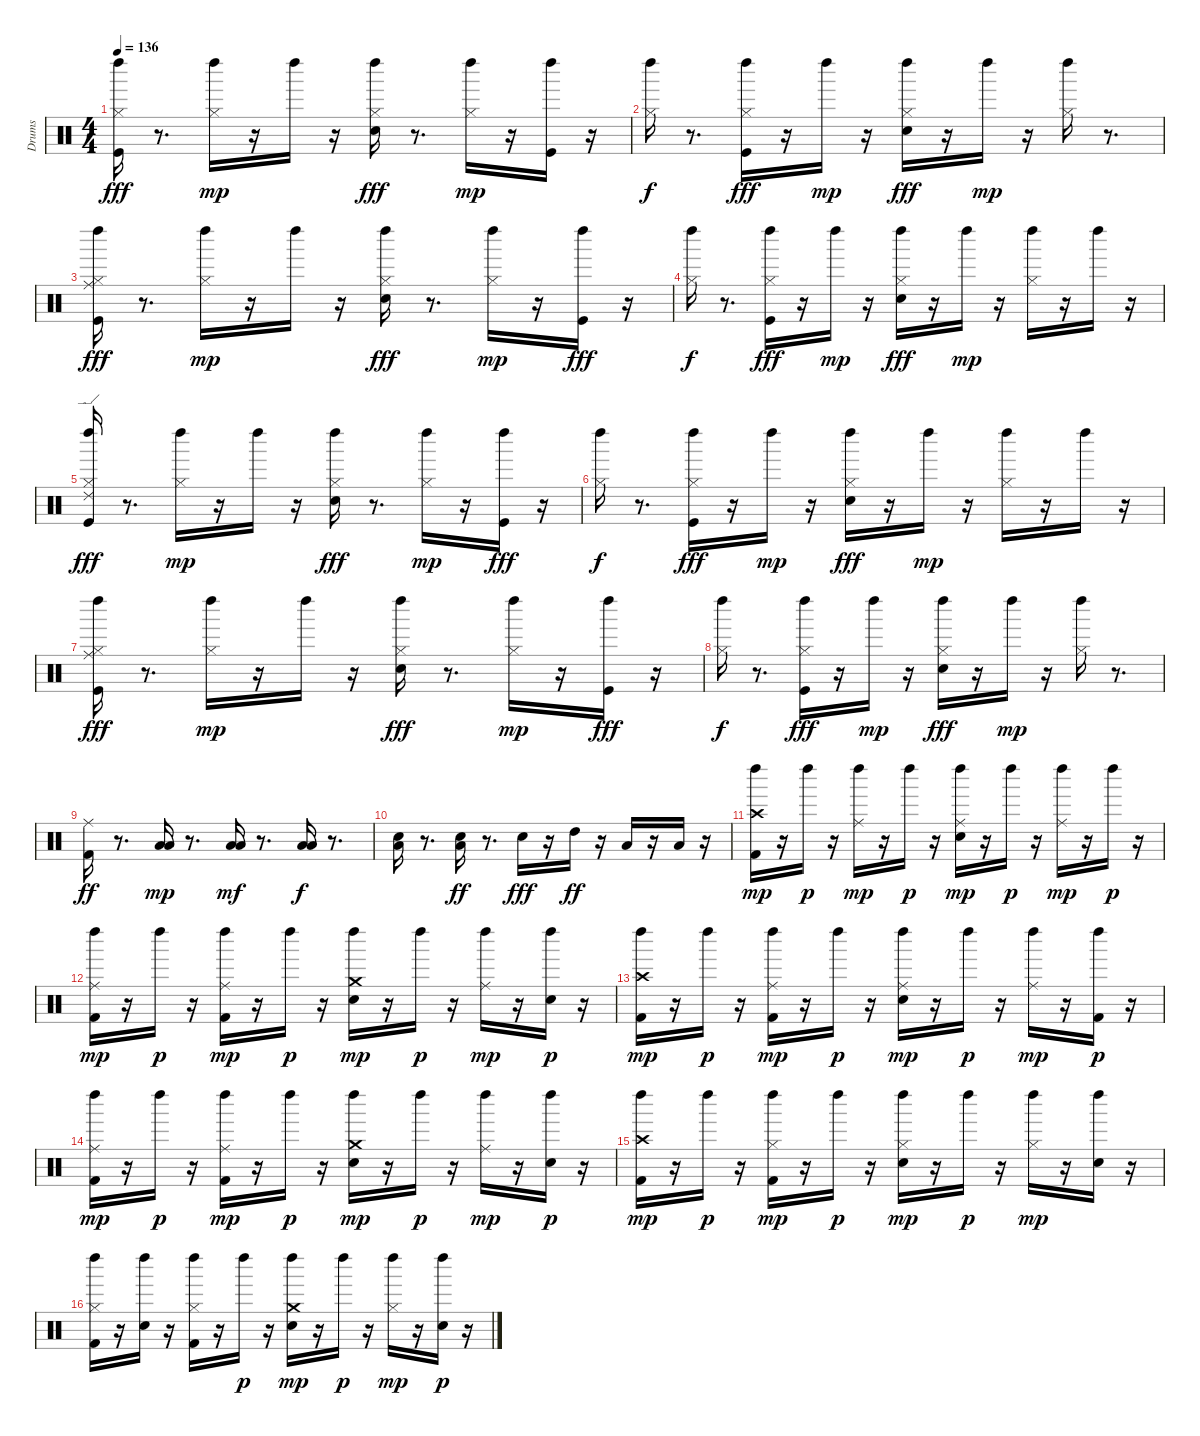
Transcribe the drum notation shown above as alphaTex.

\track ("Drums" "Drums") {instrument percussion}
\staff {score}
\articulation defaults
\ts (4 4)
\tempo 136
\clef neutral
\ks c
("Kick (hit)" "Hi-Hat (closed)" "Left Maraca (hit)").16{dy fff} r.8{d} ("Hi-Hat (closed)" "Left Maraca (hit)").16{dy mp} r.16 "Left Maraca (hit)".16 r.16 ("Snare (hit) 2" "Hi-Hat (closed)" "Left Maraca (hit)").16{dy fff} r.8{d} ("Hi-Hat (closed)" "Left Maraca (hit)").16{dy mp} r.16 ("Kick (hit)" "Left Maraca (hit)").16 r.16 |
("Hi-Hat (closed)" "Left Maraca (hit)").16{dy f} r.8{d} ("Hi-Hat (closed)" "Kick (hit)" "Left Maraca (hit)").16{dy fff} r.16 "Left Maraca (hit)".16{dy mp} r.16 ("Snare (hit) 2" "Hi-Hat (closed)" "Left Maraca (hit)").16{dy fff} r.16 "Left Maraca (hit)".16{dy mp} r.16 ("Hi-Hat (closed)" "Left Maraca (hit)").16 r.8{d} |
("Kick (hit)" "Hi-Hat (closed)" "Left Maraca (hit)" "Ride (middle)").16{dy fff} r.8{d} ("Hi-Hat (closed)" "Left Maraca (hit)").16{dy mp} r.16 "Left Maraca (hit)".16 r.16 ("Snare (hit) 2" "Hi-Hat (closed)" "Left Maraca (hit)").16{dy fff} r.8{d} ("Hi-Hat (closed)" "Left Maraca (hit)").16{dy mp} r.16 ("Left Maraca (hit)" "Kick (hit)").16{dy fff} r.16 |
("Hi-Hat (closed)" "Left Maraca (hit)").16{dy f} r.8{d} ("Hi-Hat (closed)" "Left Maraca (hit)" "Kick (hit)").16{dy fff} r.16 "Left Maraca (hit)".16{dy mp} r.16 ("Snare (hit) 2" "Hi-Hat (closed)" "Left Maraca (hit)").16{dy fff} r.16 "Left Maraca (hit)".16{dy mp} r.16 ("Hi-Hat (closed)" "Left Maraca (hit)").16 r.16 "Left Maraca (hit)".16 r.16 |
("Kick (hit)" "Hi-Hat (closed)" "Left Maraca (hit)" "Ride (edge) 2").16{dy fff} r.8{d} ("Hi-Hat (closed)" "Left Maraca (hit)").16{dy mp} r.16 "Left Maraca (hit)".16 r.16 ("Snare (hit) 2" "Hi-Hat (closed)" "Left Maraca (hit)").16{dy fff} r.8{d} ("Hi-Hat (closed)" "Left Maraca (hit)").16{dy mp} r.16 ("Left Maraca (hit)" "Kick (hit)").16{dy fff} r.16 |
("Hi-Hat (closed)" "Left Maraca (hit)").16{dy f} r.8{d} ("Hi-Hat (closed)" "Left Maraca (hit)" "Kick (hit)").16{dy fff} r.16 "Left Maraca (hit)".16{dy mp} r.16 ("Snare (hit) 2" "Hi-Hat (closed)" "Left Maraca (hit)").16{dy fff} r.16 "Left Maraca (hit)".16{dy mp} r.16 ("Hi-Hat (closed)" "Left Maraca (hit)").16 r.16 "Left Maraca (hit)".16 r.16 |
("Kick (hit)" "Hi-Hat (closed)" "Left Maraca (hit)" "Ride (middle)").16{dy fff} r.8{d} ("Hi-Hat (closed)" "Left Maraca (hit)").16{dy mp} r.16 "Left Maraca (hit)".16 r.16 ("Snare (hit) 2" "Hi-Hat (closed)" "Left Maraca (hit)").16{dy fff} r.8{d} ("Hi-Hat (closed)" "Left Maraca (hit)").16{dy mp} r.16 ("Left Maraca (hit)" "Kick (hit)").16{dy fff} r.16 |
("Hi-Hat (closed)" "Left Maraca (hit)").16{dy f} r.8{d} ("Hi-Hat (closed)" "Left Maraca (hit)" "Kick (hit)").16{dy fff} r.16 "Left Maraca (hit)".16{dy mp} r.16 ("Snare (hit) 2" "Hi-Hat (closed)" "Left Maraca (hit)").16{dy fff} r.16 "Left Maraca (hit)".16{dy mp} r.16 ("Hi-Hat (closed)" "Left Maraca (hit)").16 r.8{d} |
("Kick (hit) 2" "Ride (middle)").16{dy ff volume 15} r.8{d} ("Low Tom (hit)" "Low Floor Tom (hit)").16{dy mp} r.8{d} ("Low Tom (hit)" "Low Floor Tom (hit)").16{dy mf} r.8{d} ("Low Tom (hit)" "Low Floor Tom (hit)").16{dy f} r.8{d} |
("Low Tom (hit)" "Electric Snare (hit)").16 r.8{d} ("Low Tom (hit)" "Electric Snare (hit)").16{dy ff} r.8{d} "Electric Snare (hit)".16{dy fff} r.16 "High Tom (hit)".16{dy ff} r.16 "Low Tom (hit)".16 r.16 "Low Floor Tom (hit)".16 r.16 |
("Kick (hit) 2" "Crash high (hit)" "Left Maraca (hit)").16{dy mp} r.16 "Left Maraca (hit)".16{dy p} r.16 ("Ride (middle)" "Left Maraca (hit)").16{dy mp} r.16 "Left Maraca (hit)".16{dy p} r.16 ("Electric Snare (hit)" "Ride (middle)" "Left Maraca (hit)").16{dy mp} r.16 "Left Maraca (hit)".16{dy p} r.16 ("Ride (middle)" "Left Maraca (hit)").16{dy mp} r.16 "Left Maraca (hit)".16{dy p} r.16 |
("Kick (hit) 2" "Ride (middle)" "Left Maraca (hit)").16{dy mp} r.16 "Left Maraca (hit)".16{dy p} r.16 ("Kick (hit) 2" "Ride (middle)" "Left Maraca (hit)").16{dy mp} r.16 "Left Maraca (hit)".16{dy p} r.16 ("Electric Snare (hit)" "Crash medium (hit)" "Left Maraca (hit)").16{dy mp} r.16 "Left Maraca (hit)".16{dy p} r.16 ("Ride (middle)" "Left Maraca (hit)").16{dy mp} r.16 ("Electric Snare (hit)" "Left Maraca (hit)").16{dy p} r.16 |
("Kick (hit) 2" "Crash high (hit)" "Left Maraca (hit)").16{dy mp} r.16 "Left Maraca (hit)".16{dy p} r.16 ("Ride (middle)" "Kick (hit) 2" "Left Maraca (hit)").16{dy mp} r.16 "Left Maraca (hit)".16{dy p} r.16 ("Electric Snare (hit)" "Ride (middle)" "Left Maraca (hit)").16{dy mp} r.16 "Left Maraca (hit)".16{dy p} r.16 ("Ride (middle)" "Left Maraca (hit)").16{dy mp} r.16 ("Kick (hit) 2" "Left Maraca (hit)").16{dy p} r.16 |
("Kick (hit) 2" "Ride (middle)" "Left Maraca (hit)").16{dy mp} r.16 "Left Maraca (hit)".16{dy p} r.16 ("Kick (hit) 2" "Ride (middle)" "Left Maraca (hit)").16{dy mp} r.16 "Left Maraca (hit)".16{dy p} r.16 ("Electric Snare (hit)" "Crash medium (hit)" "Left Maraca (hit)").16{dy mp} r.16 "Left Maraca (hit)".16{dy p} r.16 ("Ride (middle)" "Left Maraca (hit)").16{dy mp} r.16 ("Electric Snare (hit)" "Left Maraca (hit)").16{dy p} r.16 |
("Kick (hit) 2" "Crash high (hit)" "Left Maraca (hit)").16{dy mp} r.16 "Left Maraca (hit)".16{dy p} r.16 ("Left Maraca (hit)" "Kick (hit) 2" "Hi-Hat (closed)").16{dy mp} r.16 "Left Maraca (hit)".16{dy p} r.16 ("Electric Snare (hit)" "Left Maraca (hit)" "Hi-Hat (closed)").16{dy mp} r.16 "Left Maraca (hit)".16{dy p} r.16 ("Left Maraca (hit)" "Hi-Hat (closed)").16{dy mp} r.16 ("Left Maraca (hit)" "Electric Snare (hit)").16 r.16 |
("Kick (hit) 2" "Left Maraca (hit)" "Hi-Hat (closed)").16 r.16 ("Left Maraca (hit)" "Electric Snare (hit)").16 r.16 ("Kick (hit) 2" "Left Maraca (hit)" "Hi-Hat (closed)").16 r.16 "Left Maraca (hit)".16{dy p} r.16 ("Electric Snare (hit)" "Crash medium (hit)" "Left Maraca (hit)").16{dy mp} r.16 "Left Maraca (hit)".16{dy p} r.16 ("Left Maraca (hit)" "Hi-Hat (closed)").16{dy mp} r.16 ("Electric Snare (hit)" "Left Maraca (hit)").16{dy p} r.16
